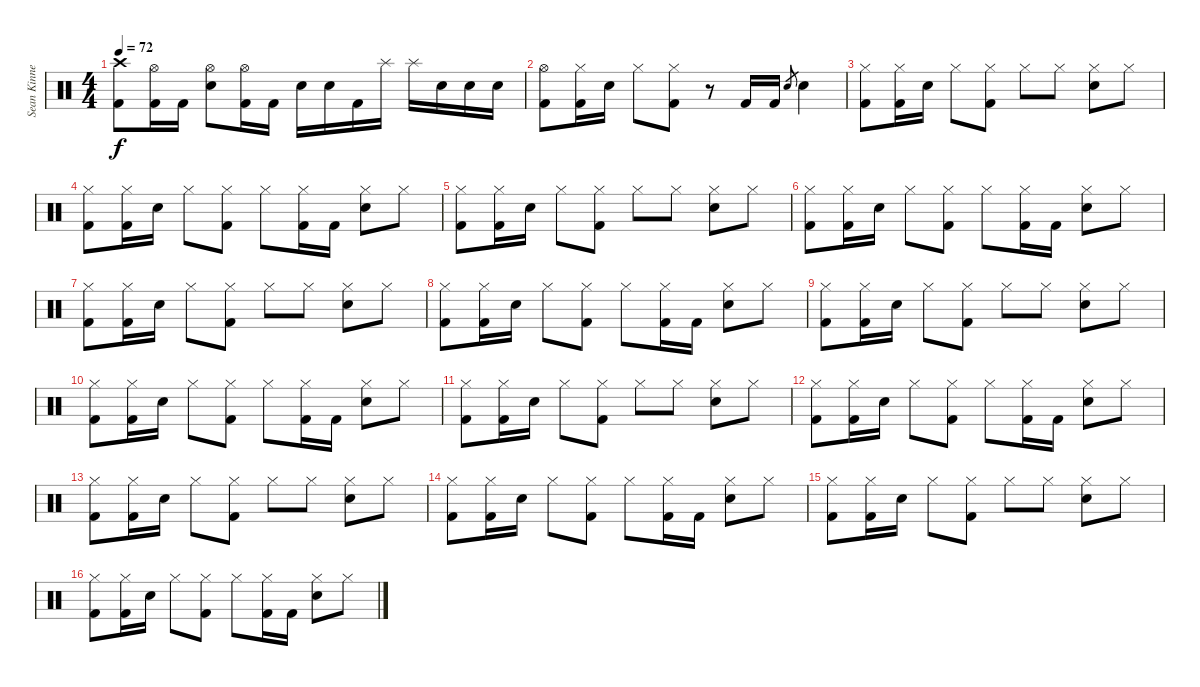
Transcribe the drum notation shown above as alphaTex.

\track ("Sean Kinney - Drums" "Sean Kinne") {instrument percussion}
\staff {score}
\articulation defaults
\ts (4 4)
\tempo 72
\clef neutral
\ks c
("Crash high (hit)" "Kick (hit) 2").8{dy f} ("Hi-Hat (open)" "Kick (hit) 2").16 "Kick (hit) 2".16 ("Hi-Hat (open)" "Electric Snare (hit)").8 ("Hi-Hat (open)" "Kick (hit) 2").16 "Kick (hit) 2".16 "Electric Snare (hit)".16 "Electric Snare (hit)".16 "Kick (hit) 2".16 "Splash (hit)".16 "Splash (hit)".16 "Electric Snare (hit)".16 "Electric Snare (hit)".16 "Electric Snare (hit)".16 |
("Hi-Hat (open)" "Kick (hit) 2").8 ("Hi-Hat (closed)" "Kick (hit) 2").16 "Electric Snare (hit)".16 "Hi-Hat (closed)".8 ("Hi-Hat (closed)" "Kick (hit) 2").8 r.8 "Kick (hit) 2".16 "Kick (hit) 2".16 "Electric Snare (hit)"{sl}.8{gr} "Electric Snare (hit)".4 |
("Hi-Hat (closed)" "Kick (hit) 2").8 ("Hi-Hat (closed)" "Kick (hit) 2").16 "Electric Snare (hit)".16 "Hi-Hat (closed)".8 ("Hi-Hat (closed)" "Kick (hit) 2").8 "Hi-Hat (closed)".8 "Hi-Hat (closed)".8 ("Hi-Hat (closed)" "Electric Snare (hit)").8 "Hi-Hat (closed)".8 |
("Hi-Hat (closed)" "Kick (hit) 2").8 ("Hi-Hat (closed)" "Kick (hit) 2").16 "Electric Snare (hit)".16 "Hi-Hat (closed)".8 ("Hi-Hat (closed)" "Kick (hit) 2").8 "Hi-Hat (closed)".8 ("Hi-Hat (closed)" "Kick (hit) 2").16 "Kick (hit) 2".16 ("Hi-Hat (closed)" "Electric Snare (hit)").8 "Hi-Hat (closed)".8 |
("Hi-Hat (closed)" "Kick (hit) 2").8 ("Hi-Hat (closed)" "Kick (hit) 2").16 "Electric Snare (hit)".16 "Hi-Hat (closed)".8 ("Hi-Hat (closed)" "Kick (hit) 2").8 "Hi-Hat (closed)".8 "Hi-Hat (closed)".8 ("Hi-Hat (closed)" "Electric Snare (hit)").8 "Hi-Hat (closed)".8 |
("Hi-Hat (closed)" "Kick (hit) 2").8 ("Hi-Hat (closed)" "Kick (hit) 2").16 "Electric Snare (hit)".16 "Hi-Hat (closed)".8 ("Hi-Hat (closed)" "Kick (hit) 2").8 "Hi-Hat (closed)".8 ("Hi-Hat (closed)" "Kick (hit) 2").16 "Kick (hit) 2".16 ("Hi-Hat (closed)" "Electric Snare (hit)").8 "Hi-Hat (closed)".8 |
("Hi-Hat (closed)" "Kick (hit) 2").8 ("Hi-Hat (closed)" "Kick (hit) 2").16 "Electric Snare (hit)".16 "Hi-Hat (closed)".8 ("Hi-Hat (closed)" "Kick (hit) 2").8 "Hi-Hat (closed)".8 "Hi-Hat (closed)".8 ("Hi-Hat (closed)" "Electric Snare (hit)").8 "Hi-Hat (closed)".8 |
("Hi-Hat (closed)" "Kick (hit) 2").8 ("Hi-Hat (closed)" "Kick (hit) 2").16 "Electric Snare (hit)".16 "Hi-Hat (closed)".8 ("Hi-Hat (closed)" "Kick (hit) 2").8 "Hi-Hat (closed)".8 ("Hi-Hat (closed)" "Kick (hit) 2").16 "Kick (hit) 2".16 ("Hi-Hat (closed)" "Electric Snare (hit)").8 "Hi-Hat (closed)".8 |
("Hi-Hat (closed)" "Kick (hit) 2").8 ("Hi-Hat (closed)" "Kick (hit) 2").16 "Electric Snare (hit)".16 "Hi-Hat (closed)".8 ("Hi-Hat (closed)" "Kick (hit) 2").8 "Hi-Hat (closed)".8 "Hi-Hat (closed)".8 ("Hi-Hat (closed)" "Electric Snare (hit)").8 "Hi-Hat (closed)".8 |
("Hi-Hat (closed)" "Kick (hit) 2").8 ("Hi-Hat (closed)" "Kick (hit) 2").16 "Electric Snare (hit)".16 "Hi-Hat (closed)".8 ("Hi-Hat (closed)" "Kick (hit) 2").8 "Hi-Hat (closed)".8 ("Hi-Hat (closed)" "Kick (hit) 2").16 "Kick (hit) 2".16 ("Hi-Hat (closed)" "Electric Snare (hit)").8 "Hi-Hat (closed)".8 |
("Hi-Hat (closed)" "Kick (hit) 2").8 ("Hi-Hat (closed)" "Kick (hit) 2").16 "Electric Snare (hit)".16 "Hi-Hat (closed)".8 ("Hi-Hat (closed)" "Kick (hit) 2").8 "Hi-Hat (closed)".8 "Hi-Hat (closed)".8 ("Hi-Hat (closed)" "Electric Snare (hit)").8 "Hi-Hat (closed)".8 |
("Hi-Hat (closed)" "Kick (hit) 2").8 ("Hi-Hat (closed)" "Kick (hit) 2").16 "Electric Snare (hit)".16 "Hi-Hat (closed)".8 ("Hi-Hat (closed)" "Kick (hit) 2").8 "Hi-Hat (closed)".8 ("Hi-Hat (closed)" "Kick (hit) 2").16 "Kick (hit) 2".16 ("Hi-Hat (closed)" "Electric Snare (hit)").8 "Hi-Hat (closed)".8 |
("Hi-Hat (closed)" "Kick (hit) 2").8 ("Hi-Hat (closed)" "Kick (hit) 2").16 "Electric Snare (hit)".16 "Hi-Hat (closed)".8 ("Hi-Hat (closed)" "Kick (hit) 2").8 "Hi-Hat (closed)".8 "Hi-Hat (closed)".8 ("Hi-Hat (closed)" "Electric Snare (hit)").8 "Hi-Hat (closed)".8 |
("Hi-Hat (closed)" "Kick (hit) 2").8 ("Hi-Hat (closed)" "Kick (hit) 2").16 "Electric Snare (hit)".16 "Hi-Hat (closed)".8 ("Hi-Hat (closed)" "Kick (hit) 2").8 "Hi-Hat (closed)".8 ("Hi-Hat (closed)" "Kick (hit) 2").16 "Kick (hit) 2".16 ("Hi-Hat (closed)" "Electric Snare (hit)").8 "Hi-Hat (closed)".8 |
("Hi-Hat (closed)" "Kick (hit) 2").8 ("Hi-Hat (closed)" "Kick (hit) 2").16 "Electric Snare (hit)".16 "Hi-Hat (closed)".8 ("Hi-Hat (closed)" "Kick (hit) 2").8 "Hi-Hat (closed)".8 "Hi-Hat (closed)".8 ("Hi-Hat (closed)" "Electric Snare (hit)").8 "Hi-Hat (closed)".8 |
("Hi-Hat (closed)" "Kick (hit) 2").8 ("Hi-Hat (closed)" "Kick (hit) 2").16 "Electric Snare (hit)".16 "Hi-Hat (closed)".8 ("Hi-Hat (closed)" "Kick (hit) 2").8 "Hi-Hat (closed)".8 ("Hi-Hat (closed)" "Kick (hit) 2").16 "Kick (hit) 2".16 ("Hi-Hat (closed)" "Electric Snare (hit)").8 "Hi-Hat (closed)".8
